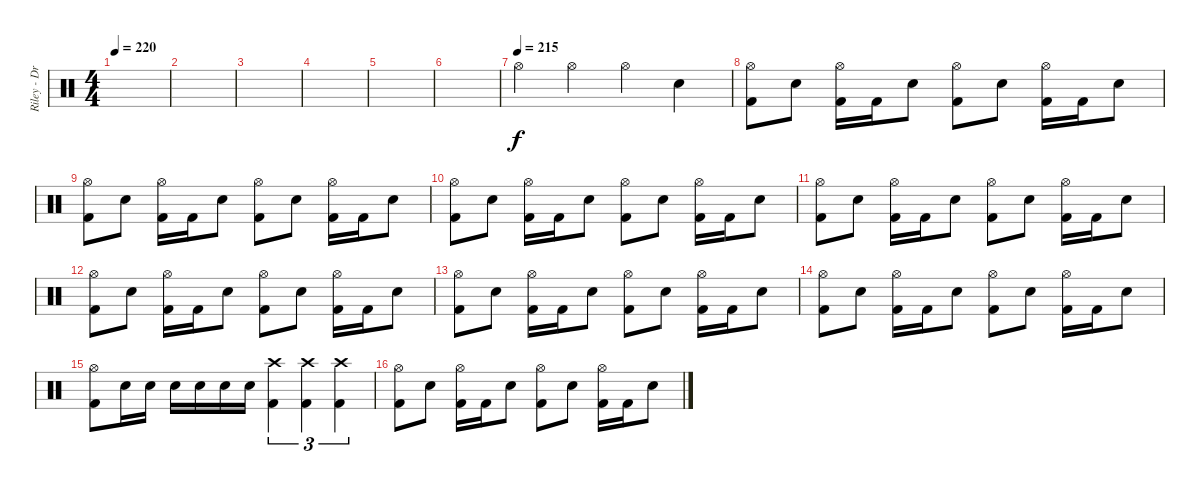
\track ("Riley - Drums" "Riley - Dr") {instrument percussion}
\staff {score}
\articulation defaults
\ts (4 4)
\tempo 220
\clef neutral
\ks c
|
|
|
|
|
|
\tempo (215)
"Hi-Hat (open)".4 "Hi-Hat (open)".4 "Hi-Hat (open)".4 "Electric Snare (hit)".4 |
("Hi-Hat (open)" "Kick (hit) 2").8 "Electric Snare (hit)".8 ("Hi-Hat (open)" "Kick (hit) 2").16 "Kick (hit) 2".16 "Electric Snare (hit)".8 ("Hi-Hat (open)" "Kick (hit) 2").8 "Electric Snare (hit)".8 ("Hi-Hat (open)" "Kick (hit) 2").16 "Kick (hit) 2".16 "Electric Snare (hit)".8 |
("Hi-Hat (open)" "Kick (hit) 2").8 "Electric Snare (hit)".8 ("Hi-Hat (open)" "Kick (hit) 2").16 "Kick (hit) 2".16 "Electric Snare (hit)".8 ("Hi-Hat (open)" "Kick (hit) 2").8 "Electric Snare (hit)".8 ("Hi-Hat (open)" "Kick (hit) 2").16 "Kick (hit) 2".16 "Electric Snare (hit)".8 |
("Hi-Hat (open)" "Kick (hit) 2").8 "Electric Snare (hit)".8 ("Hi-Hat (open)" "Kick (hit) 2").16 "Kick (hit) 2".16 "Electric Snare (hit)".8 ("Hi-Hat (open)" "Kick (hit) 2").8 "Electric Snare (hit)".8 ("Hi-Hat (open)" "Kick (hit) 2").16 "Kick (hit) 2".16 "Electric Snare (hit)".8 |
("Hi-Hat (open)" "Kick (hit) 2").8 "Electric Snare (hit)".8 ("Hi-Hat (open)" "Kick (hit) 2").16 "Kick (hit) 2".16 "Electric Snare (hit)".8 ("Hi-Hat (open)" "Kick (hit) 2").8 "Electric Snare (hit)".8 ("Hi-Hat (open)" "Kick (hit) 2").16 "Kick (hit) 2".16 "Electric Snare (hit)".8 |
("Hi-Hat (open)" "Kick (hit) 2").8 "Electric Snare (hit)".8 ("Hi-Hat (open)" "Kick (hit) 2").16 "Kick (hit) 2".16 "Electric Snare (hit)".8 ("Hi-Hat (open)" "Kick (hit) 2").8 "Electric Snare (hit)".8 ("Hi-Hat (open)" "Kick (hit) 2").16 "Kick (hit) 2".16 "Electric Snare (hit)".8 |
("Hi-Hat (open)" "Kick (hit) 2").8 "Electric Snare (hit)".8 ("Hi-Hat (open)" "Kick (hit) 2").16 "Kick (hit) 2".16 "Electric Snare (hit)".8 ("Hi-Hat (open)" "Kick (hit) 2").8 "Electric Snare (hit)".8 ("Hi-Hat (open)" "Kick (hit) 2").16 "Kick (hit) 2".16 "Electric Snare (hit)".8 |
("Hi-Hat (open)" "Kick (hit) 2").8 "Electric Snare (hit)".8 ("Hi-Hat (open)" "Kick (hit) 2").16 "Kick (hit) 2".16 "Electric Snare (hit)".8 ("Hi-Hat (open)" "Kick (hit) 2").8 "Electric Snare (hit)".8 ("Hi-Hat (open)" "Kick (hit) 2").16 "Kick (hit) 2".16 "Electric Snare (hit)".8 |
("Hi-Hat (open)" "Kick (hit) 2").8 "Electric Snare (hit)".16 "Electric Snare (hit)".16 "Electric Snare (hit)".16 "Electric Snare (hit)".16 "Electric Snare (hit)".16 "Electric Snare (hit)".16 ("Crash high (hit)" "Kick (hit) 2").4{tu (3 2)} ("Crash high (hit)" "Kick (hit) 2").4{tu (3 2)} ("Crash high (hit)" "Kick (hit) 2").4{tu (3 2)} |
("Hi-Hat (open)" "Kick (hit) 2").8 "Electric Snare (hit)".8 ("Hi-Hat (open)" "Kick (hit) 2").16 "Kick (hit) 2".16 "Electric Snare (hit)".8 ("Hi-Hat (open)" "Kick (hit) 2").8 "Electric Snare (hit)".8 ("Hi-Hat (open)" "Kick (hit) 2").16 "Kick (hit) 2".16 "Electric Snare (hit)".8
